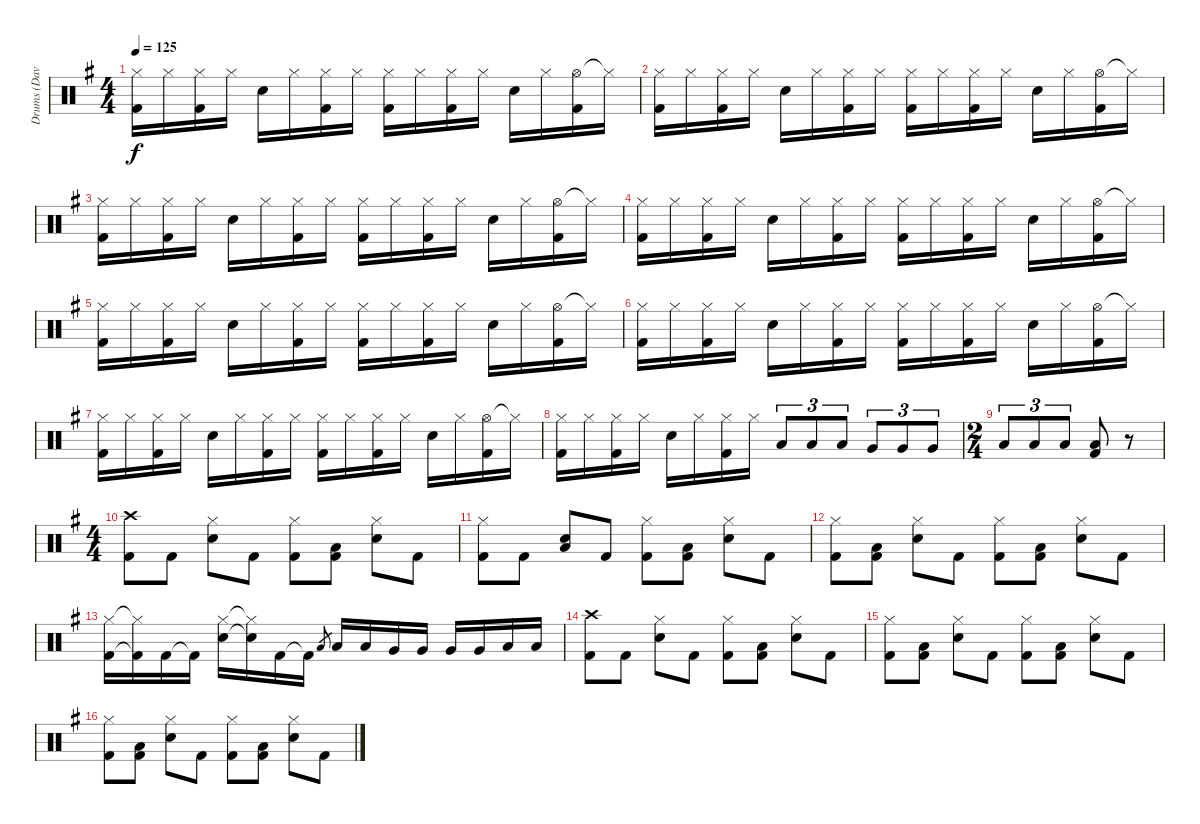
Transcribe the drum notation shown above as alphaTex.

\track ("Drums (Dave Holland)" "Drums (Dav") {instrument percussion}
\staff {score}
\articulation defaults
\ts (4 4)
\tempo 125
\clef neutral
\ks g
("Hi-Hat (closed)" "Kick (hit) 2").16{dy f} "Hi-Hat (closed)".16 ("Hi-Hat (closed)" "Kick (hit) 2").16 "Hi-Hat (closed)".16 "Snare (hit) 2".16 "Hi-Hat (closed)".16 ("Hi-Hat (closed)" "Kick (hit) 2").16 "Hi-Hat (closed)".16 ("Hi-Hat (closed)" "Kick (hit) 2").16 "Hi-Hat (closed)".16 ("Hi-Hat (closed)" "Kick (hit) 2").16 "Hi-Hat (closed)".16 "Snare (hit) 2".16 "Hi-Hat (closed)".16 ("Hi-Hat (open)" "Kick (hit) 2").16 "Hi-Hat (closed)"{t}.16 |
("Hi-Hat (closed)" "Kick (hit) 2").16 "Hi-Hat (closed)".16 ("Hi-Hat (closed)" "Kick (hit) 2").16 "Hi-Hat (closed)".16 "Snare (hit) 2".16 "Hi-Hat (closed)".16 ("Hi-Hat (closed)" "Kick (hit) 2").16 "Hi-Hat (closed)".16 ("Hi-Hat (closed)" "Kick (hit) 2").16 "Hi-Hat (closed)".16 ("Hi-Hat (closed)" "Kick (hit) 2").16 "Hi-Hat (closed)".16 "Snare (hit) 2".16 "Hi-Hat (closed)".16 ("Hi-Hat (open)" "Kick (hit) 2").16 "Hi-Hat (closed)"{t}.16 |
("Hi-Hat (closed)" "Kick (hit) 2").16 "Hi-Hat (closed)".16 ("Hi-Hat (closed)" "Kick (hit) 2").16 "Hi-Hat (closed)".16 "Snare (hit) 2".16 "Hi-Hat (closed)".16 ("Hi-Hat (closed)" "Kick (hit) 2").16 "Hi-Hat (closed)".16 ("Hi-Hat (closed)" "Kick (hit) 2").16 "Hi-Hat (closed)".16 ("Hi-Hat (closed)" "Kick (hit) 2").16 "Hi-Hat (closed)".16 "Snare (hit) 2".16 "Hi-Hat (closed)".16 ("Hi-Hat (open)" "Kick (hit) 2").16 "Hi-Hat (closed)"{t}.16 |
("Hi-Hat (closed)" "Kick (hit) 2").16 "Hi-Hat (closed)".16 ("Hi-Hat (closed)" "Kick (hit) 2").16 "Hi-Hat (closed)".16 "Snare (hit) 2".16 "Hi-Hat (closed)".16 ("Hi-Hat (closed)" "Kick (hit) 2").16 "Hi-Hat (closed)".16 ("Hi-Hat (closed)" "Kick (hit) 2").16 "Hi-Hat (closed)".16 ("Hi-Hat (closed)" "Kick (hit) 2").16 "Hi-Hat (closed)".16 "Snare (hit) 2".16 "Hi-Hat (closed)".16 ("Hi-Hat (open)" "Kick (hit) 2").16 "Hi-Hat (closed)"{t}.16 |
("Hi-Hat (closed)" "Kick (hit) 2").16 "Hi-Hat (closed)".16 ("Hi-Hat (closed)" "Kick (hit) 2").16 "Hi-Hat (closed)".16 "Snare (hit) 2".16 "Hi-Hat (closed)".16 ("Hi-Hat (closed)" "Kick (hit) 2").16 "Hi-Hat (closed)".16 ("Hi-Hat (closed)" "Kick (hit) 2").16 "Hi-Hat (closed)".16 ("Hi-Hat (closed)" "Kick (hit) 2").16 "Hi-Hat (closed)".16 "Snare (hit) 2".16 "Hi-Hat (closed)".16 ("Hi-Hat (open)" "Kick (hit) 2").16 "Hi-Hat (closed)"{t}.16 |
("Hi-Hat (closed)" "Kick (hit) 2").16 "Hi-Hat (closed)".16 ("Hi-Hat (closed)" "Kick (hit) 2").16 "Hi-Hat (closed)".16 "Snare (hit) 2".16 "Hi-Hat (closed)".16 ("Hi-Hat (closed)" "Kick (hit) 2").16 "Hi-Hat (closed)".16 ("Hi-Hat (closed)" "Kick (hit) 2").16 "Hi-Hat (closed)".16 ("Hi-Hat (closed)" "Kick (hit) 2").16 "Hi-Hat (closed)".16 "Snare (hit) 2".16 "Hi-Hat (closed)".16 ("Hi-Hat (open)" "Kick (hit) 2").16 "Hi-Hat (closed)"{t}.16 |
("Hi-Hat (closed)" "Kick (hit) 2").16 "Hi-Hat (closed)".16 ("Hi-Hat (closed)" "Kick (hit) 2").16 "Hi-Hat (closed)".16 "Snare (hit) 2".16 "Hi-Hat (closed)".16 ("Hi-Hat (closed)" "Kick (hit) 2").16 "Hi-Hat (closed)".16 ("Hi-Hat (closed)" "Kick (hit) 2").16 "Hi-Hat (closed)".16 ("Hi-Hat (closed)" "Kick (hit) 2").16 "Hi-Hat (closed)".16 "Snare (hit) 2".16 "Hi-Hat (closed)".16 ("Hi-Hat (open)" "Kick (hit) 2").16 "Hi-Hat (closed)"{t}.16 |
("Hi-Hat (closed)" "Kick (hit) 2").16 "Hi-Hat (closed)".16 ("Hi-Hat (closed)" "Kick (hit) 2").16 "Hi-Hat (closed)".16 "Snare (hit) 2".16 "Hi-Hat (closed)".16 ("Hi-Hat (closed)" "Kick (hit) 2").16 "Hi-Hat (closed)".16 "Low Tom (hit)".8{tu (3 2)} "Low Tom (hit)".8{tu (3 2)} "Low Tom (hit)".8{tu (3 2)} "Very Low Tom (hit)".8{tu (3 2)} "Very Low Tom (hit)".8{tu (3 2)} "Very Low Tom (hit)".8{tu (3 2)} |
\ts (2 4)
"Low Floor Tom (hit)".8{tu (3 2)} "Low Floor Tom (hit)".8{tu (3 2)} "Low Floor Tom (hit)".8{tu (3 2)} ("Low Floor Tom (hit)" "Kick (hit) 2").8 r.8 |
\ts (4 4)
("Crash high (hit)" "Kick (hit) 2").8 "Kick (hit) 2".8 ("Hi-Hat (closed)" "Snare (hit) 2").8 "Kick (hit) 2".8 ("Hi-Hat (closed)" "Kick (hit) 2").8 ("Low Tom (hit)" "Kick (hit) 2").8 ("Hi-Hat (closed)" "Snare (hit) 2").8 "Kick (hit) 2".8 |
("Hi-Hat (closed)" "Kick (hit) 2").8 "Kick (hit) 2".8 ("Snare (hit) 2" "Low Tom (hit)").8 "Kick (hit) 2".8 ("Hi-Hat (closed)" "Kick (hit) 2").8 ("Low Tom (hit)" "Kick (hit) 2").8 ("Hi-Hat (closed)" "Snare (hit) 2").8 "Kick (hit) 2".8 |
("Hi-Hat (closed)" "Kick (hit) 2").8 ("Low Tom (hit)" "Kick (hit) 2").8 ("Hi-Hat (closed)" "Snare (hit) 2").8 "Kick (hit) 2".8 ("Hi-Hat (closed)" "Kick (hit) 2").8 ("Low Tom (hit)" "Kick (hit) 2").8 ("Hi-Hat (closed)" "Snare (hit) 2").8 "Kick (hit) 2".8 |
("Hi-Hat (closed)" "Kick (hit) 2").16 ("Hi-Hat (closed)"{t} "Kick (hit) 2"{t}).16 "Kick (hit) 2".16 "Kick (hit) 2"{t}.16 ("Hi-Hat (closed)" "Snare (hit) 2").16 ("Hi-Hat (closed)"{t} "Snare (hit) 2"{t}).16 "Kick (hit) 2".16 "Kick (hit) 2"{t}.16 "Low Tom (hit)".8{gr} "Low Tom (hit)".16 "Low Tom (hit)".16 "Very Low Tom (hit)".16 "Very Low Tom (hit)".16 "Very Low Tom (hit)".16 "Very Low Tom (hit)".16 "Low Floor Tom (hit)".16 "Low Floor Tom (hit)".16 |
("Crash high (hit)" "Kick (hit) 2").8 "Kick (hit) 2".8 ("Hi-Hat (closed)" "Snare (hit) 2").8 "Kick (hit) 2".8 ("Hi-Hat (closed)" "Kick (hit) 2").8 ("Low Tom (hit)" "Kick (hit) 2").8 ("Hi-Hat (closed)" "Snare (hit) 2").8 "Kick (hit) 2".8 |
("Hi-Hat (closed)" "Kick (hit) 2").8 ("Low Tom (hit)" "Kick (hit) 2").8 ("Hi-Hat (closed)" "Snare (hit) 2").8 "Kick (hit) 2".8 ("Hi-Hat (closed)" "Kick (hit) 2").8 ("Low Tom (hit)" "Kick (hit) 2").8 ("Hi-Hat (closed)" "Snare (hit) 2").8 "Kick (hit) 2".8 |
("Hi-Hat (closed)" "Kick (hit) 2").8 ("Low Tom (hit)" "Kick (hit) 2").8 ("Hi-Hat (closed)" "Snare (hit) 2").8 "Kick (hit) 2".8 ("Hi-Hat (closed)" "Kick (hit) 2").8 ("Low Tom (hit)" "Kick (hit) 2").8 ("Hi-Hat (closed)" "Snare (hit) 2").8 "Kick (hit) 2".8
